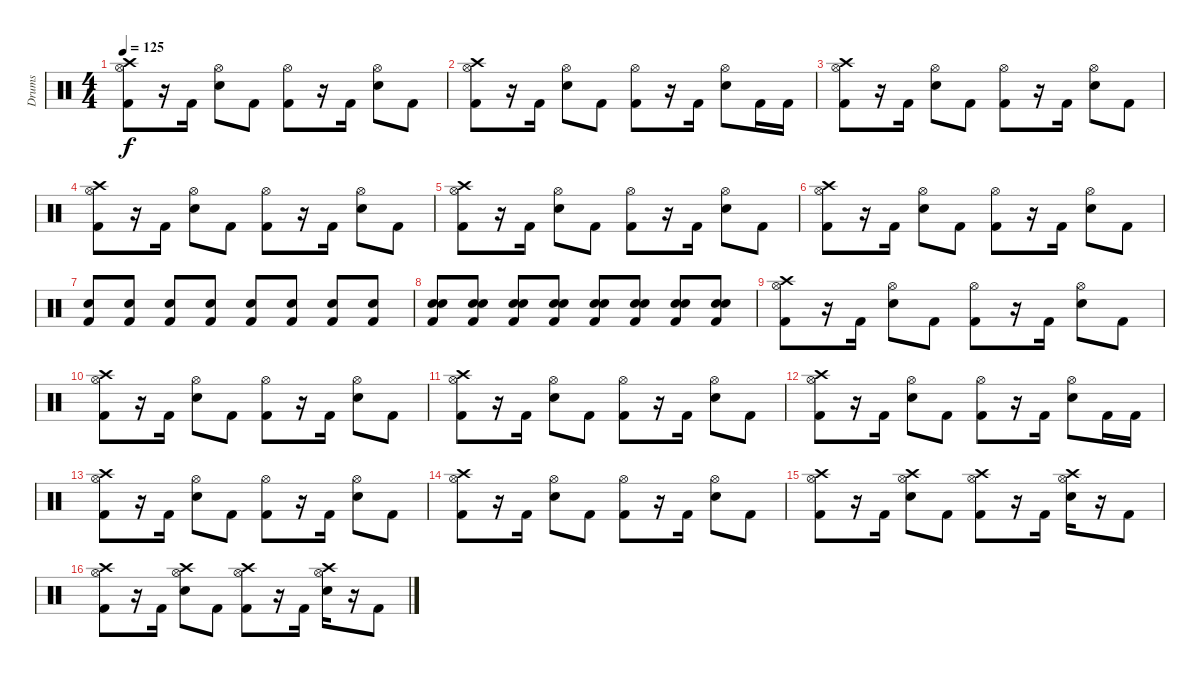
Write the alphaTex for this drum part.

\track ("Drums" "Drums") {instrument percussion}
\staff {score}
\articulation defaults
\ts (4 4)
\tempo 125
\clef neutral
\ks c
("Hi-Hat (open)" "Kick (hit) 2" "Crash high (hit)").8{dy f} r.16 "Kick (hit) 2".16 ("Hi-Hat (open)" "Snare (hit) 2").8 "Kick (hit) 2".8 ("Hi-Hat (open)" "Kick (hit) 2").8 r.16 "Kick (hit) 2".16 ("Hi-Hat (open)" "Snare (hit) 2").8 "Kick (hit) 2".8 |
("Hi-Hat (open)" "Kick (hit) 2" "Crash high (hit)").8 r.16 "Kick (hit) 2".16 ("Hi-Hat (open)" "Snare (hit) 2").8 "Kick (hit) 2".8 ("Hi-Hat (open)" "Kick (hit) 2").8 r.16 "Kick (hit) 2".16 ("Hi-Hat (open)" "Snare (hit) 2").8 "Kick (hit) 2".16 "Kick (hit) 2".16 |
("Hi-Hat (open)" "Kick (hit) 2" "Crash high (hit)").8 r.16 "Kick (hit) 2".16 ("Hi-Hat (open)" "Snare (hit) 2").8 "Kick (hit) 2".8 ("Hi-Hat (open)" "Kick (hit) 2").8 r.16 "Kick (hit) 2".16 ("Hi-Hat (open)" "Snare (hit) 2").8 "Kick (hit) 2".8 |
("Hi-Hat (open)" "Kick (hit) 2" "Crash high (hit)").8 r.16 "Kick (hit) 2".16 ("Hi-Hat (open)" "Snare (hit) 2").8 "Kick (hit) 2".8 ("Hi-Hat (open)" "Kick (hit) 2").8 r.16 "Kick (hit) 2".16 ("Hi-Hat (open)" "Snare (hit) 2").8 "Kick (hit) 2".8 |
("Hi-Hat (open)" "Kick (hit) 2" "Crash high (hit)").8 r.16 "Kick (hit) 2".16 ("Hi-Hat (open)" "Snare (hit) 2").8 "Kick (hit) 2".8 ("Hi-Hat (open)" "Kick (hit) 2").8 r.16 "Kick (hit) 2".16 ("Hi-Hat (open)" "Snare (hit) 2").8 "Kick (hit) 2".8 |
("Hi-Hat (open)" "Kick (hit) 2" "Crash high (hit)").8 r.16 "Kick (hit) 2".16 ("Hi-Hat (open)" "Snare (hit) 2").8 "Kick (hit) 2".8 ("Hi-Hat (open)" "Kick (hit) 2").8 r.16 "Kick (hit) 2".16 ("Hi-Hat (open)" "Snare (hit) 2").8 "Kick (hit) 2".8 |
("Kick (hit) 2" "Electric Snare (hit)").8 ("Kick (hit) 2" "Electric Snare (hit)").8 ("Kick (hit) 2" "Electric Snare (hit)").8 ("Kick (hit) 2" "Electric Snare (hit)").8 ("Kick (hit) 2" "Electric Snare (hit)").8 ("Kick (hit) 2" "Electric Snare (hit)").8 ("Kick (hit) 2" "Electric Snare (hit)").8 ("Kick (hit) 2" "Electric Snare (hit)").8 |
("Kick (hit) 2" "Electric Snare (hit)" "Snare (hit) 2").8 ("Kick (hit) 2" "Electric Snare (hit)" "Snare (hit) 2").8 ("Kick (hit) 2" "Electric Snare (hit)" "Snare (hit) 2").8 ("Kick (hit) 2" "Electric Snare (hit)" "Snare (hit) 2").8 ("Kick (hit) 2" "Electric Snare (hit)" "Snare (hit) 2").8 ("Kick (hit) 2" "Electric Snare (hit)" "Snare (hit) 2").8 ("Kick (hit) 2" "Electric Snare (hit)" "Snare (hit) 2").8 ("Kick (hit) 2" "Electric Snare (hit)" "Snare (hit) 2").8 |
("Hi-Hat (open)" "Kick (hit) 2" "Crash high (hit)").8 r.16 "Kick (hit) 2".16 ("Hi-Hat (open)" "Snare (hit) 2").8 "Kick (hit) 2".8 ("Hi-Hat (open)" "Kick (hit) 2").8 r.16 "Kick (hit) 2".16 ("Hi-Hat (open)" "Snare (hit) 2").8 "Kick (hit) 2".8 |
("Hi-Hat (open)" "Kick (hit) 2" "Crash high (hit)").8 r.16 "Kick (hit) 2".16 ("Hi-Hat (open)" "Snare (hit) 2").8 "Kick (hit) 2".8 ("Hi-Hat (open)" "Kick (hit) 2").8 r.16 "Kick (hit) 2".16 ("Hi-Hat (open)" "Snare (hit) 2").8 "Kick (hit) 2".8 |
("Hi-Hat (open)" "Kick (hit) 2" "Crash high (hit)").8 r.16 "Kick (hit) 2".16 ("Hi-Hat (open)" "Snare (hit) 2").8 "Kick (hit) 2".8 ("Hi-Hat (open)" "Kick (hit) 2").8 r.16 "Kick (hit) 2".16 ("Hi-Hat (open)" "Snare (hit) 2").8 "Kick (hit) 2".8 |
("Hi-Hat (open)" "Kick (hit) 2" "Crash high (hit)").8 r.16 "Kick (hit) 2".16 ("Hi-Hat (open)" "Snare (hit) 2").8 "Kick (hit) 2".8 ("Hi-Hat (open)" "Kick (hit) 2").8 r.16 "Kick (hit) 2".16 ("Hi-Hat (open)" "Snare (hit) 2").8 "Kick (hit) 2".16 "Kick (hit) 2".16 |
("Hi-Hat (open)" "Kick (hit) 2" "Crash high (hit)").8 r.16 "Kick (hit) 2".16 ("Hi-Hat (open)" "Snare (hit) 2").8 "Kick (hit) 2".8 ("Hi-Hat (open)" "Kick (hit) 2").8 r.16 "Kick (hit) 2".16 ("Hi-Hat (open)" "Snare (hit) 2").8 "Kick (hit) 2".8 |
("Hi-Hat (open)" "Kick (hit) 2" "Crash high (hit)").8 r.16 "Kick (hit) 2".16 ("Hi-Hat (open)" "Snare (hit) 2").8 "Kick (hit) 2".8 ("Hi-Hat (open)" "Kick (hit) 2").8 r.16 "Kick (hit) 2".16 ("Hi-Hat (open)" "Snare (hit) 2").8 "Kick (hit) 2".8 |
("Hi-Hat (open)" "Kick (hit) 2" "Crash high (hit)").8 r.16 "Kick (hit) 2".16 ("Hi-Hat (open)" "Snare (hit) 2" "Crash high (hit)").8 "Kick (hit) 2".8 ("Hi-Hat (open)" "Kick (hit) 2" "Crash high (hit)").8 r.16 "Kick (hit) 2".16 ("Hi-Hat (open)" "Snare (hit) 2" "Crash high (hit)").16 r.16 "Kick (hit) 2".8 |
("Hi-Hat (open)" "Kick (hit) 2" "Crash high (hit)").8 r.16 "Kick (hit) 2".16 ("Hi-Hat (open)" "Snare (hit) 2" "Crash high (hit)").8 "Kick (hit) 2".8 ("Hi-Hat (open)" "Kick (hit) 2" "Crash high (hit)").8 r.16 "Kick (hit) 2".16 ("Hi-Hat (open)" "Snare (hit) 2" "Crash high (hit)").16 r.16 "Kick (hit) 2".8
